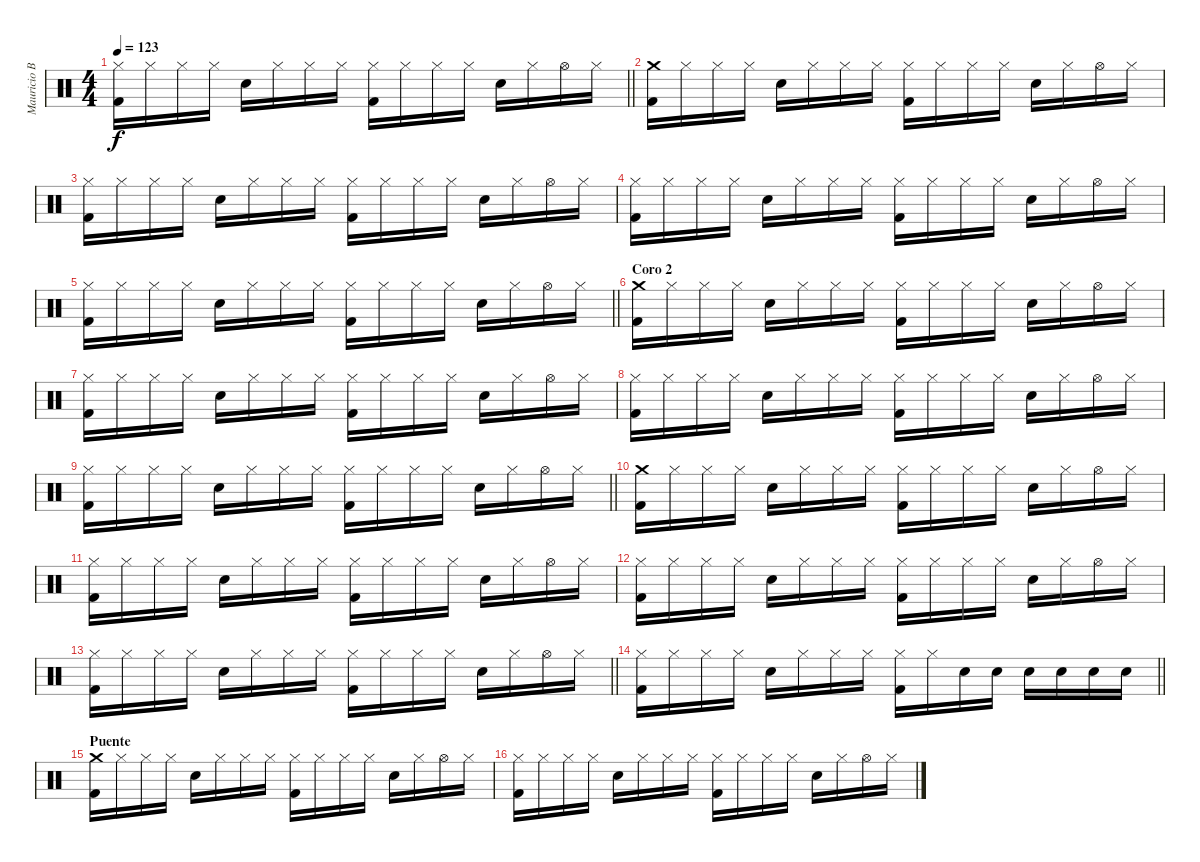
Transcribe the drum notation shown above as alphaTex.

\track ("Mauricio Basualto" "Mauricio B") {instrument percussion}
\staff {score}
\articulation defaults
\ts (4 4)
\tempo 123
\clef neutral
\barLineRight lightlight
\ks c
("Hi-Hat (closed)" "Kick (hit) 2").16{dy f} "Hi-Hat (closed)".16 "Hi-Hat (closed)".16 "Hi-Hat (closed)".16 "Electric Snare (hit)".16 "Hi-Hat (closed)".16 "Hi-Hat (closed)".16 "Hi-Hat (closed)".16 ("Hi-Hat (closed)" "Kick (hit) 2").16 "Hi-Hat (closed)".16 "Hi-Hat (closed)".16 "Hi-Hat (closed)".16 "Electric Snare (hit)".16 "Hi-Hat (closed)".16 "Hi-Hat (open)".16 "Hi-Hat (closed)".16 |
("Crash medium (hit)" "Kick (hit) 2").16 "Hi-Hat (closed)".16 "Hi-Hat (closed)".16 "Hi-Hat (closed)".16 "Electric Snare (hit)".16 "Hi-Hat (closed)".16 "Hi-Hat (closed)".16 "Hi-Hat (closed)".16 ("Hi-Hat (closed)" "Kick (hit) 2").16 "Hi-Hat (closed)".16 "Hi-Hat (closed)".16 "Hi-Hat (closed)".16 "Electric Snare (hit)".16 "Hi-Hat (closed)".16 "Hi-Hat (open)".16 "Hi-Hat (closed)".16 |
("Hi-Hat (closed)" "Kick (hit) 2").16 "Hi-Hat (closed)".16 "Hi-Hat (closed)".16 "Hi-Hat (closed)".16 "Electric Snare (hit)".16 "Hi-Hat (closed)".16 "Hi-Hat (closed)".16 "Hi-Hat (closed)".16 ("Hi-Hat (closed)" "Kick (hit) 2").16 "Hi-Hat (closed)".16 "Hi-Hat (closed)".16 "Hi-Hat (closed)".16 "Electric Snare (hit)".16 "Hi-Hat (closed)".16 "Hi-Hat (open)".16 "Hi-Hat (closed)".16 |
("Hi-Hat (closed)" "Kick (hit) 2").16 "Hi-Hat (closed)".16 "Hi-Hat (closed)".16 "Hi-Hat (closed)".16 "Electric Snare (hit)".16 "Hi-Hat (closed)".16 "Hi-Hat (closed)".16 "Hi-Hat (closed)".16 ("Hi-Hat (closed)" "Kick (hit) 2").16 "Hi-Hat (closed)".16 "Hi-Hat (closed)".16 "Hi-Hat (closed)".16 "Electric Snare (hit)".16 "Hi-Hat (closed)".16 "Hi-Hat (open)".16 "Hi-Hat (closed)".16 |
\barLineRight lightlight
("Hi-Hat (closed)" "Kick (hit) 2").16 "Hi-Hat (closed)".16 "Hi-Hat (closed)".16 "Hi-Hat (closed)".16 "Electric Snare (hit)".16 "Hi-Hat (closed)".16 "Hi-Hat (closed)".16 "Hi-Hat (closed)".16 ("Hi-Hat (closed)" "Kick (hit) 2").16 "Hi-Hat (closed)".16 "Hi-Hat (closed)".16 "Hi-Hat (closed)".16 "Electric Snare (hit)".16 "Hi-Hat (closed)".16 "Hi-Hat (open)".16 "Hi-Hat (closed)".16 |
\section ("" "Coro 2")
("Crash medium (hit)" "Kick (hit) 2").16 "Hi-Hat (closed)".16 "Hi-Hat (closed)".16 "Hi-Hat (closed)".16 "Electric Snare (hit)".16 "Hi-Hat (closed)".16 "Hi-Hat (closed)".16 "Hi-Hat (closed)".16 ("Hi-Hat (closed)" "Kick (hit) 2").16 "Hi-Hat (closed)".16 "Hi-Hat (closed)".16 "Hi-Hat (closed)".16 "Electric Snare (hit)".16 "Hi-Hat (closed)".16 "Hi-Hat (open)".16 "Hi-Hat (closed)".16 |
("Hi-Hat (closed)" "Kick (hit) 2").16 "Hi-Hat (closed)".16 "Hi-Hat (closed)".16 "Hi-Hat (closed)".16 "Electric Snare (hit)".16 "Hi-Hat (closed)".16 "Hi-Hat (closed)".16 "Hi-Hat (closed)".16 ("Hi-Hat (closed)" "Kick (hit) 2").16 "Hi-Hat (closed)".16 "Hi-Hat (closed)".16 "Hi-Hat (closed)".16 "Electric Snare (hit)".16 "Hi-Hat (closed)".16 "Hi-Hat (open)".16 "Hi-Hat (closed)".16 |
("Hi-Hat (closed)" "Kick (hit) 2").16 "Hi-Hat (closed)".16 "Hi-Hat (closed)".16 "Hi-Hat (closed)".16 "Electric Snare (hit)".16 "Hi-Hat (closed)".16 "Hi-Hat (closed)".16 "Hi-Hat (closed)".16 ("Hi-Hat (closed)" "Kick (hit) 2").16 "Hi-Hat (closed)".16 "Hi-Hat (closed)".16 "Hi-Hat (closed)".16 "Electric Snare (hit)".16 "Hi-Hat (closed)".16 "Hi-Hat (open)".16 "Hi-Hat (closed)".16 |
\barLineRight lightlight
("Hi-Hat (closed)" "Kick (hit) 2").16 "Hi-Hat (closed)".16 "Hi-Hat (closed)".16 "Hi-Hat (closed)".16 "Electric Snare (hit)".16 "Hi-Hat (closed)".16 "Hi-Hat (closed)".16 "Hi-Hat (closed)".16 ("Hi-Hat (closed)" "Kick (hit) 2").16 "Hi-Hat (closed)".16 "Hi-Hat (closed)".16 "Hi-Hat (closed)".16 "Electric Snare (hit)".16 "Hi-Hat (closed)".16 "Hi-Hat (open)".16 "Hi-Hat (closed)".16 |
("Crash medium (hit)" "Kick (hit) 2").16 "Hi-Hat (closed)".16 "Hi-Hat (closed)".16 "Hi-Hat (closed)".16 "Electric Snare (hit)".16 "Hi-Hat (closed)".16 "Hi-Hat (closed)".16 "Hi-Hat (closed)".16 ("Hi-Hat (closed)" "Kick (hit) 2").16 "Hi-Hat (closed)".16 "Hi-Hat (closed)".16 "Hi-Hat (closed)".16 "Electric Snare (hit)".16 "Hi-Hat (closed)".16 "Hi-Hat (open)".16 "Hi-Hat (closed)".16 |
("Hi-Hat (closed)" "Kick (hit) 2").16 "Hi-Hat (closed)".16 "Hi-Hat (closed)".16 "Hi-Hat (closed)".16 "Electric Snare (hit)".16 "Hi-Hat (closed)".16 "Hi-Hat (closed)".16 "Hi-Hat (closed)".16 ("Hi-Hat (closed)" "Kick (hit) 2").16 "Hi-Hat (closed)".16 "Hi-Hat (closed)".16 "Hi-Hat (closed)".16 "Electric Snare (hit)".16 "Hi-Hat (closed)".16 "Hi-Hat (open)".16 "Hi-Hat (closed)".16 |
("Hi-Hat (closed)" "Kick (hit) 2").16 "Hi-Hat (closed)".16 "Hi-Hat (closed)".16 "Hi-Hat (closed)".16 "Electric Snare (hit)".16 "Hi-Hat (closed)".16 "Hi-Hat (closed)".16 "Hi-Hat (closed)".16 ("Hi-Hat (closed)" "Kick (hit) 2").16 "Hi-Hat (closed)".16 "Hi-Hat (closed)".16 "Hi-Hat (closed)".16 "Electric Snare (hit)".16 "Hi-Hat (closed)".16 "Hi-Hat (open)".16 "Hi-Hat (closed)".16 |
\barLineRight lightlight
("Hi-Hat (closed)" "Kick (hit) 2").16 "Hi-Hat (closed)".16 "Hi-Hat (closed)".16 "Hi-Hat (closed)".16 "Electric Snare (hit)".16 "Hi-Hat (closed)".16 "Hi-Hat (closed)".16 "Hi-Hat (closed)".16 ("Hi-Hat (closed)" "Kick (hit) 2").16 "Hi-Hat (closed)".16 "Hi-Hat (closed)".16 "Hi-Hat (closed)".16 "Electric Snare (hit)".16 "Hi-Hat (closed)".16 "Hi-Hat (open)".16 "Hi-Hat (closed)".16 |
\barLineRight lightlight
("Hi-Hat (closed)" "Kick (hit) 2").16 "Hi-Hat (closed)".16 "Hi-Hat (closed)".16 "Hi-Hat (closed)".16 "Electric Snare (hit)".16 "Hi-Hat (closed)".16 "Hi-Hat (closed)".16 "Hi-Hat (closed)".16 ("Hi-Hat (closed)" "Kick (hit) 2").16 "Hi-Hat (closed)".16 "Electric Snare (hit)".16 "Electric Snare (hit)".16 "Electric Snare (hit)".16 "Electric Snare (hit)".16 "Electric Snare (hit)".16 "Electric Snare (hit)".16 |
\section ("" "Puente")
("Crash medium (hit)" "Kick (hit) 2").16 "Hi-Hat (closed)".16 "Hi-Hat (closed)".16 "Hi-Hat (closed)".16 "Electric Snare (hit)".16 "Hi-Hat (closed)".16 "Hi-Hat (closed)".16 "Hi-Hat (closed)".16 ("Hi-Hat (closed)" "Kick (hit) 2").16 "Hi-Hat (closed)".16 "Hi-Hat (closed)".16 "Hi-Hat (closed)".16 "Electric Snare (hit)".16 "Hi-Hat (closed)".16 "Hi-Hat (open)".16 "Hi-Hat (closed)".16 |
("Hi-Hat (closed)" "Kick (hit) 2").16 "Hi-Hat (closed)".16 "Hi-Hat (closed)".16 "Hi-Hat (closed)".16 "Electric Snare (hit)".16 "Hi-Hat (closed)".16 "Hi-Hat (closed)".16 "Hi-Hat (closed)".16 ("Hi-Hat (closed)" "Kick (hit) 2").16 "Hi-Hat (closed)".16 "Hi-Hat (closed)".16 "Hi-Hat (closed)".16 "Electric Snare (hit)".16 "Hi-Hat (closed)".16 "Hi-Hat (open)".16 "Hi-Hat (closed)".16
